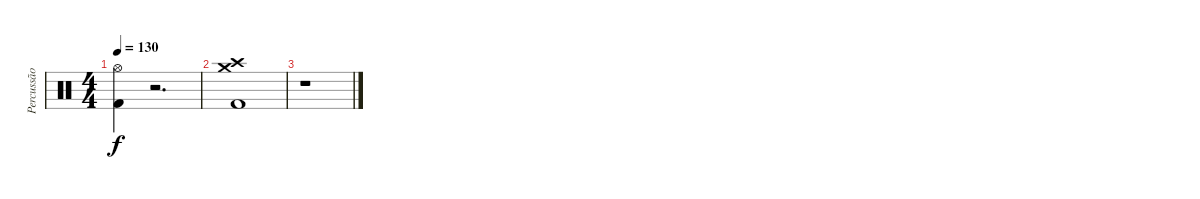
\track ("Percussão" "Percussão") {instrument percussion}
\staff {score}
\articulation defaults
\ts (4 4)
\tempo 130
\clef neutral
\ks c
("Hi-Hat (open)" "Kick (hit) 2").4{dy f} r.2{d} |
("Crash high (hit)" "Crash medium (hit)" "Kick (hit) 2").1 |
r.1
